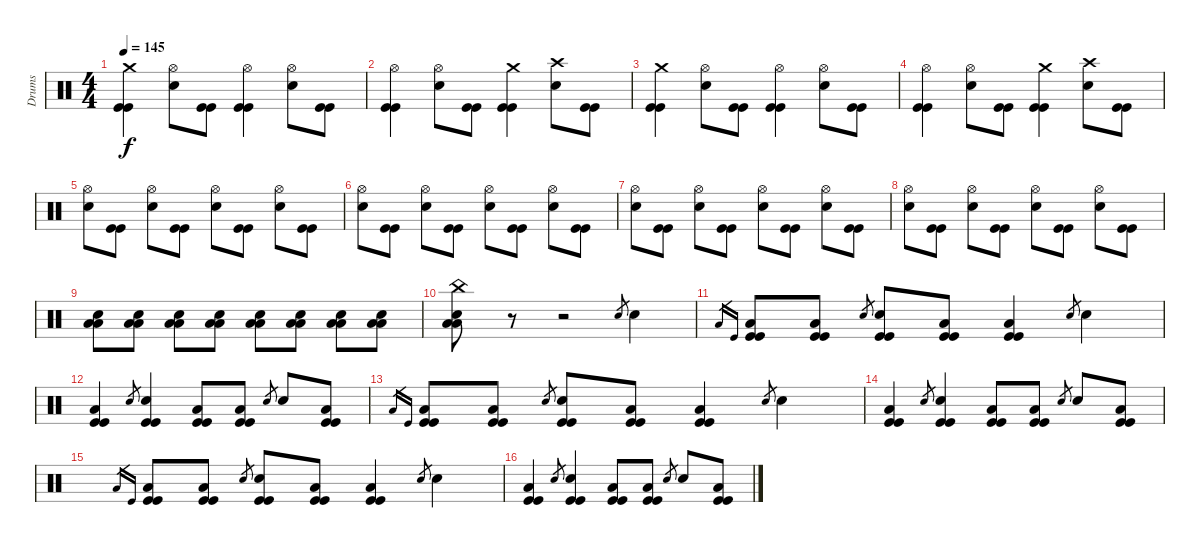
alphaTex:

\track ("Drums" "Drums") {instrument percussion}
\staff {score}
\articulation defaults
\ts (4 4)
\tempo 145
\clef neutral
\ks c
("Crash medium (hit)" "Kick (hit)" "Kick (hit)").4{dy f} ("Hi-Hat (open)" "Electric Snare (hit)").8 ("Kick (hit)" "Kick (hit)").8 ("Hi-Hat (open)" "Kick (hit)" "Kick (hit)").4 ("Hi-Hat (open)" "Electric Snare (hit)").8 ("Kick (hit)" "Kick (hit)").8 |
("Hi-Hat (open)" "Kick (hit)" "Kick (hit)").4 ("Hi-Hat (open)" "Electric Snare (hit)").8 ("Kick (hit)" "Kick (hit)").8 ("Crash medium (hit)" "Kick (hit)" "Kick (hit)").4 ("Crash high (hit)" "Electric Snare (hit)").8 ("Kick (hit)" "Kick (hit)").8 |
("Crash medium (hit)" "Kick (hit)" "Kick (hit)").4 ("Hi-Hat (open)" "Electric Snare (hit)").8 ("Kick (hit)" "Kick (hit)").8 ("Hi-Hat (open)" "Kick (hit)" "Kick (hit)").4 ("Hi-Hat (open)" "Electric Snare (hit)").8 ("Kick (hit)" "Kick (hit)").8 |
("Hi-Hat (open)" "Kick (hit)" "Kick (hit)").4 ("Hi-Hat (open)" "Electric Snare (hit)").8 ("Kick (hit)" "Kick (hit)").8 ("Crash medium (hit)" "Kick (hit)" "Kick (hit)").4 ("Crash high (hit)" "Electric Snare (hit)").8 ("Kick (hit)" "Kick (hit)").8 |
("Hi-Hat (open)" "Electric Snare (hit)").8 ("Kick (hit)" "Kick (hit)").8 ("Hi-Hat (open)" "Electric Snare (hit)").8 ("Kick (hit)" "Kick (hit)").8 ("Hi-Hat (open)" "Electric Snare (hit)").8 ("Kick (hit)" "Kick (hit)").8 ("Hi-Hat (open)" "Electric Snare (hit)").8 ("Kick (hit)" "Kick (hit)").8 |
("Hi-Hat (open)" "Electric Snare (hit)").8 ("Kick (hit)" "Kick (hit)").8 ("Hi-Hat (open)" "Electric Snare (hit)").8 ("Kick (hit)" "Kick (hit)").8 ("Hi-Hat (open)" "Electric Snare (hit)").8 ("Kick (hit)" "Kick (hit)").8 ("Hi-Hat (open)" "Electric Snare (hit)").8 ("Kick (hit)" "Kick (hit)").8 |
("Hi-Hat (open)" "Electric Snare (hit)").8 ("Kick (hit)" "Kick (hit)").8 ("Hi-Hat (open)" "Electric Snare (hit)").8 ("Kick (hit)" "Kick (hit)").8 ("Hi-Hat (open)" "Electric Snare (hit)").8 ("Kick (hit)" "Kick (hit)").8 ("Hi-Hat (open)" "Electric Snare (hit)").8 ("Kick (hit)" "Kick (hit)").8 |
("Hi-Hat (open)" "Electric Snare (hit)").8 ("Kick (hit)" "Kick (hit)").8 ("Hi-Hat (open)" "Electric Snare (hit)").8 ("Kick (hit)" "Kick (hit)").8 ("Hi-Hat (open)" "Electric Snare (hit)").8 ("Kick (hit)" "Kick (hit)").8 ("Hi-Hat (open)" "Electric Snare (hit)").8 ("Kick (hit)" "Kick (hit)").8 |
("Electric Snare (hit)" "Low Floor Tom (hit)" "Low Floor Tom (hit)").8 ("Electric Snare (hit)" "Low Floor Tom (hit)" "Low Floor Tom (hit)").8 ("Electric Snare (hit)" "Low Floor Tom (hit)" "Low Floor Tom (hit)").8 ("Electric Snare (hit)" "Low Floor Tom (hit)" "Low Floor Tom (hit)").8 ("Electric Snare (hit)" "Low Floor Tom (hit)" "Low Floor Tom (hit)").8 ("Electric Snare (hit)" "Low Floor Tom (hit)" "Low Floor Tom (hit)").8 ("Electric Snare (hit)" "Low Floor Tom (hit)" "Low Floor Tom (hit)").8 ("Electric Snare (hit)" "Low Floor Tom (hit)" "Low Floor Tom (hit)").8 |
("China (hit)" "Electric Snare (hit)" "Low Floor Tom (hit)" "Low Floor Tom (hit)").8 r.8 r.2 "Electric Snare (hit)".8{gr} "Electric Snare (hit)".4 |
"Low Floor Tom (hit)".16{gr} "Kick (hit)".16{gr} ("Low Floor Tom (hit)" "Kick (hit)" "Kick (hit)").8 ("Low Floor Tom (hit)" "Kick (hit)" "Kick (hit)").8 "Electric Snare (hit)".8{gr} ("Electric Snare (hit)" "Kick (hit)" "Kick (hit)").8 ("Low Floor Tom (hit)" "Kick (hit)" "Kick (hit)").8 ("Low Floor Tom (hit)" "Kick (hit)" "Kick (hit)").4 "Electric Snare (hit)".8{gr} "Electric Snare (hit)".4 |
("Low Floor Tom (hit)" "Kick (hit)" "Kick (hit)").4 "Electric Snare (hit)".8{gr} ("Electric Snare (hit)" "Kick (hit)" "Kick (hit)").4 ("Low Floor Tom (hit)" "Kick (hit)" "Kick (hit)").8 ("Low Floor Tom (hit)" "Kick (hit)" "Kick (hit)").8 "Electric Snare (hit)".8{gr} "Electric Snare (hit)".8 ("Low Floor Tom (hit)" "Kick (hit)" "Kick (hit)").8 |
"Low Floor Tom (hit)".16{gr} "Kick (hit)".16{gr} ("Low Floor Tom (hit)" "Kick (hit)" "Kick (hit)").8 ("Low Floor Tom (hit)" "Kick (hit)" "Kick (hit)").8 "Electric Snare (hit)".8{gr} ("Electric Snare (hit)" "Kick (hit)" "Kick (hit)").8 ("Low Floor Tom (hit)" "Kick (hit)" "Kick (hit)").8 ("Low Floor Tom (hit)" "Kick (hit)" "Kick (hit)").4 "Electric Snare (hit)".8{gr} "Electric Snare (hit)".4 |
("Low Floor Tom (hit)" "Kick (hit)" "Kick (hit)").4 "Electric Snare (hit)".8{gr} ("Electric Snare (hit)" "Kick (hit)" "Kick (hit)").4 ("Low Floor Tom (hit)" "Kick (hit)" "Kick (hit)").8 ("Low Floor Tom (hit)" "Kick (hit)" "Kick (hit)").8 "Electric Snare (hit)".8{gr} "Electric Snare (hit)".8 ("Low Floor Tom (hit)" "Kick (hit)" "Kick (hit)").8 |
"Low Floor Tom (hit)".16{gr} "Kick (hit)".16{gr} ("Low Floor Tom (hit)" "Kick (hit)" "Kick (hit)").8 ("Low Floor Tom (hit)" "Kick (hit)" "Kick (hit)").8 "Electric Snare (hit)".8{gr} ("Electric Snare (hit)" "Kick (hit)" "Kick (hit)").8 ("Low Floor Tom (hit)" "Kick (hit)" "Kick (hit)").8 ("Low Floor Tom (hit)" "Kick (hit)" "Kick (hit)").4 "Electric Snare (hit)".8{gr} "Electric Snare (hit)".4 |
("Low Floor Tom (hit)" "Kick (hit)" "Kick (hit)").4 "Electric Snare (hit)".8{gr} ("Electric Snare (hit)" "Kick (hit)" "Kick (hit)").4 ("Low Floor Tom (hit)" "Kick (hit)" "Kick (hit)").8 ("Low Floor Tom (hit)" "Kick (hit)" "Kick (hit)").8 "Electric Snare (hit)".8{gr} "Electric Snare (hit)".8 ("Low Floor Tom (hit)" "Kick (hit)" "Kick (hit)").8
